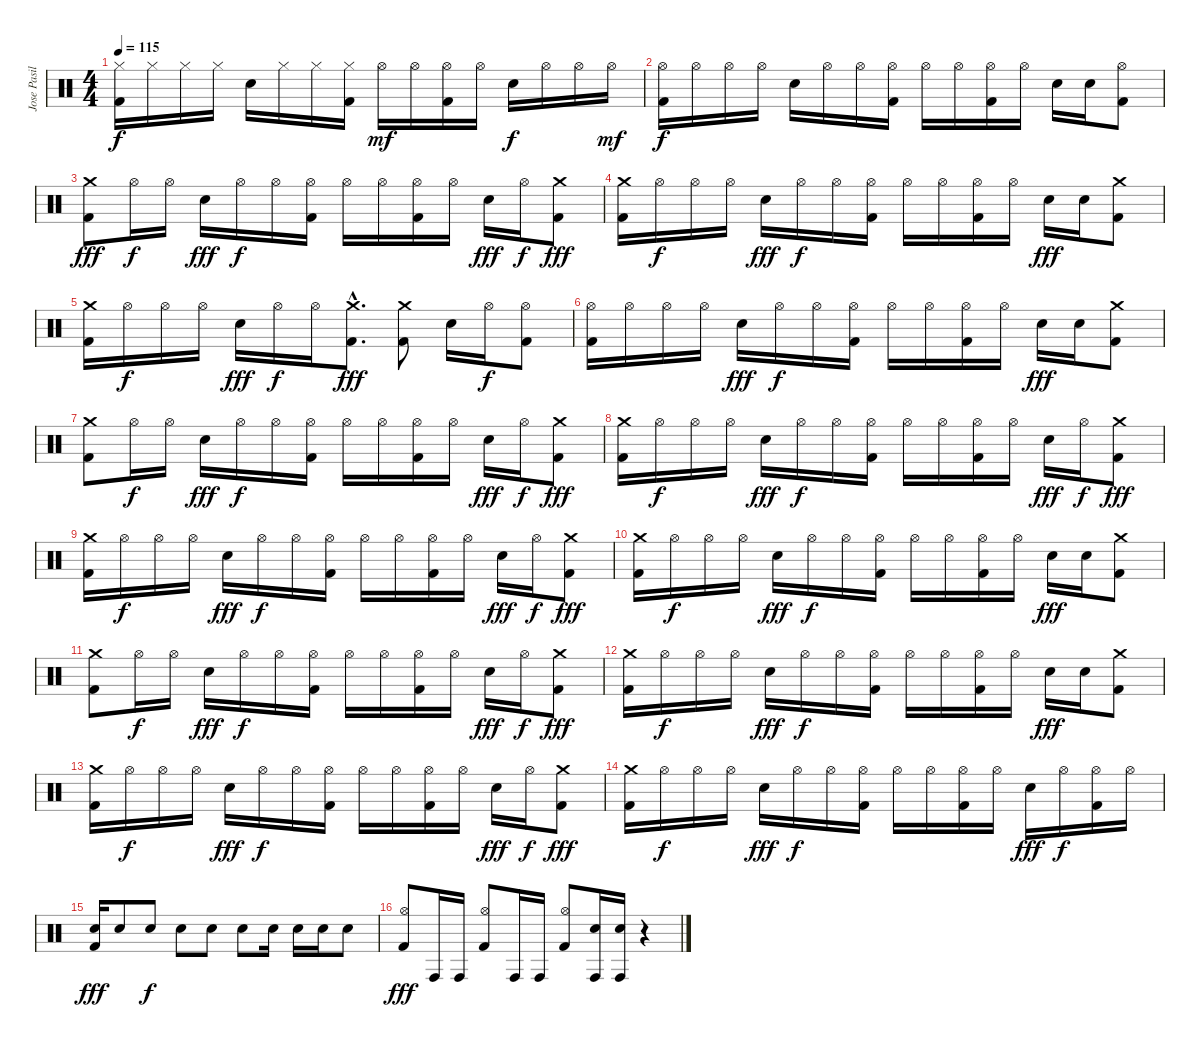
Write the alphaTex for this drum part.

\track ("Jose Pasillas - Drums" "Jose Pasil") {instrument percussion}
\staff {score}
\articulation defaults
\ts (4 4)
\tempo 115
\clef neutral
\ks c
("Hi-Hat (closed)" "Kick (hit) 2").16{dy f} "Hi-Hat (closed)".16 "Hi-Hat (closed)".16 "Hi-Hat (closed)".16 "Electric Snare (hit)".16 "Hi-Hat (closed)".16 "Hi-Hat (closed)".16 ("Hi-Hat (closed)" "Kick (hit) 2").16 "Hi-Hat (open)".16{dy mf} "Hi-Hat (open)".16 ("Hi-Hat (open)" "Kick (hit) 2").16 "Hi-Hat (open)".16 "Electric Snare (hit)".16{dy f} "Hi-Hat (open)".16 "Hi-Hat (open)".16 "Hi-Hat (open)".16{dy mf} |
("Hi-Hat (open)" "Kick (hit) 2").16{dy f} "Hi-Hat (open)".16 "Hi-Hat (open)".16 "Hi-Hat (open)".16 "Electric Snare (hit)".16 "Hi-Hat (open)".16 "Hi-Hat (open)".16 ("Hi-Hat (open)" "Kick (hit) 2").16 "Hi-Hat (open)".16 "Hi-Hat (open)".16 ("Hi-Hat (open)" "Kick (hit) 2").16 "Hi-Hat (open)".16 "Electric Snare (hit)".16 "Electric Snare (hit)".16 ("Hi-Hat (open)" "Kick (hit) 2").8 |
("Crash medium (hit)" "Kick (hit) 2").8{dy fff} "Hi-Hat (open)".16{dy f} "Hi-Hat (open)".16 "Electric Snare (hit)".16{dy fff} "Hi-Hat (open)".16{dy f} "Hi-Hat (open)".16 ("Hi-Hat (open)" "Kick (hit) 2").16 "Hi-Hat (open)".16 "Hi-Hat (open)".16 ("Hi-Hat (open)" "Kick (hit) 2").16 "Hi-Hat (open)".16 "Electric Snare (hit)".16{dy fff} "Hi-Hat (open)".16{dy f} ("Crash medium (hit)" "Kick (hit) 2").8{dy fff} |
("Crash medium (hit)" "Kick (hit) 2").16 "Hi-Hat (open)".16{dy f} "Hi-Hat (open)".16 "Hi-Hat (open)".16 "Electric Snare (hit)".16{dy fff} "Hi-Hat (open)".16{dy f} "Hi-Hat (open)".16 ("Hi-Hat (open)" "Kick (hit) 2").16 "Hi-Hat (open)".16 "Hi-Hat (open)".16 ("Hi-Hat (open)" "Kick (hit) 2").16 "Hi-Hat (open)".16 "Electric Snare (hit)".16{dy fff} "Electric Snare (hit)".16 ("Crash medium (hit)" "Kick (hit) 2").8 |
("Crash medium (hit)" "Kick (hit) 2").16 "Hi-Hat (open)".16{dy f} "Hi-Hat (open)".16 "Hi-Hat (open)".16 "Electric Snare (hit)".16{dy fff} "Hi-Hat (open)".16{dy f} "Hi-Hat (open)".16 ("Crash medium (hit)"{hac} "Kick (hit) 2"{hac}).8{d dy fff} ("Crash medium (hit)" "Kick (hit) 2").8 "Electric Snare (hit)".16 "Hi-Hat (open)".16{dy f} ("Hi-Hat (open)" "Kick (hit) 2").8 |
("Hi-Hat (open)" "Kick (hit) 2").16 "Hi-Hat (open)".16 "Hi-Hat (open)".16 "Hi-Hat (open)".16 "Electric Snare (hit)".16{dy fff} "Hi-Hat (open)".16{dy f} "Hi-Hat (open)".16 ("Hi-Hat (open)" "Kick (hit) 2").16 "Hi-Hat (open)".16 "Hi-Hat (open)".16 ("Hi-Hat (open)" "Kick (hit) 2").16 "Hi-Hat (open)".16 "Electric Snare (hit)".16{dy fff} "Electric Snare (hit)".16 ("Crash medium (hit)" "Kick (hit) 2").8 |
("Crash medium (hit)" "Kick (hit) 2").8 "Hi-Hat (open)".16{dy f} "Hi-Hat (open)".16 "Electric Snare (hit)".16{dy fff} "Hi-Hat (open)".16{dy f} "Hi-Hat (open)".16 ("Hi-Hat (open)" "Kick (hit) 2").16 "Hi-Hat (open)".16 "Hi-Hat (open)".16 ("Hi-Hat (open)" "Kick (hit) 2").16 "Hi-Hat (open)".16 "Electric Snare (hit)".16{dy fff} "Hi-Hat (open)".16{dy f} ("Crash medium (hit)" "Kick (hit) 2").8{dy fff} |
("Crash medium (hit)" "Kick (hit) 2").16 "Hi-Hat (open)".16{dy f} "Hi-Hat (open)".16 "Hi-Hat (open)".16 "Electric Snare (hit)".16{dy fff} "Hi-Hat (open)".16{dy f} "Hi-Hat (open)".16 ("Hi-Hat (open)" "Kick (hit) 2").16 "Hi-Hat (open)".16 "Hi-Hat (open)".16 ("Hi-Hat (open)" "Kick (hit) 2").16 "Hi-Hat (open)".16 "Electric Snare (hit)".16{dy fff} "Hi-Hat (open)".16{dy f} ("Crash medium (hit)" "Kick (hit) 2").8{dy fff} |
("Crash medium (hit)" "Kick (hit) 2").16 "Hi-Hat (open)".16{dy f} "Hi-Hat (open)".16 "Hi-Hat (open)".16 "Electric Snare (hit)".16{dy fff} "Hi-Hat (open)".16{dy f} "Hi-Hat (open)".16 ("Hi-Hat (open)" "Kick (hit) 2").16 "Hi-Hat (open)".16 "Hi-Hat (open)".16 ("Hi-Hat (open)" "Kick (hit) 2").16 "Hi-Hat (open)".16 "Electric Snare (hit)".16{dy fff} "Hi-Hat (open)".16{dy f} ("Crash medium (hit)" "Kick (hit) 2").8{dy fff} |
("Crash medium (hit)" "Kick (hit) 2").16 "Hi-Hat (open)".16{dy f} "Hi-Hat (open)".16 "Hi-Hat (open)".16 "Electric Snare (hit)".16{dy fff} "Hi-Hat (open)".16{dy f} "Hi-Hat (open)".16 ("Hi-Hat (open)" "Kick (hit) 2").16 "Hi-Hat (open)".16 "Hi-Hat (open)".16 ("Hi-Hat (open)" "Kick (hit) 2").16 "Hi-Hat (open)".16 "Electric Snare (hit)".16{dy fff} "Electric Snare (hit)".16 ("Crash medium (hit)" "Kick (hit) 2").8 |
("Crash medium (hit)" "Kick (hit) 2").8 "Hi-Hat (open)".16{dy f} "Hi-Hat (open)".16 "Electric Snare (hit)".16{dy fff} "Hi-Hat (open)".16{dy f} "Hi-Hat (open)".16 ("Hi-Hat (open)" "Kick (hit) 2").16 "Hi-Hat (open)".16 "Hi-Hat (open)".16 ("Hi-Hat (open)" "Kick (hit) 2").16 "Hi-Hat (open)".16 "Electric Snare (hit)".16{dy fff} "Hi-Hat (open)".16{dy f} ("Crash medium (hit)" "Kick (hit) 2").8{dy fff} |
("Crash medium (hit)" "Kick (hit) 2").16 "Hi-Hat (open)".16{dy f} "Hi-Hat (open)".16 "Hi-Hat (open)".16 "Electric Snare (hit)".16{dy fff} "Hi-Hat (open)".16{dy f} "Hi-Hat (open)".16 ("Hi-Hat (open)" "Kick (hit) 2").16 "Hi-Hat (open)".16 "Hi-Hat (open)".16 ("Hi-Hat (open)" "Kick (hit) 2").16 "Hi-Hat (open)".16 "Electric Snare (hit)".16{dy fff} "Electric Snare (hit)".16 ("Crash medium (hit)" "Kick (hit) 2").8 |
("Crash medium (hit)" "Kick (hit) 2").16 "Hi-Hat (open)".16{dy f} "Hi-Hat (open)".16 "Hi-Hat (open)".16 "Electric Snare (hit)".16{dy fff} "Hi-Hat (open)".16{dy f} "Hi-Hat (open)".16 ("Hi-Hat (open)" "Kick (hit) 2").16 "Hi-Hat (open)".16 "Hi-Hat (open)".16 ("Hi-Hat (open)" "Kick (hit) 2").16 "Hi-Hat (open)".16 "Electric Snare (hit)".16{dy fff} "Hi-Hat (open)".16{dy f} ("Crash medium (hit)" "Kick (hit) 2").8{dy fff} |
("Crash medium (hit)" "Kick (hit) 2").16 "Hi-Hat (open)".16{dy f} "Hi-Hat (open)".16 "Hi-Hat (open)".16 "Electric Snare (hit)".16{dy fff} "Hi-Hat (open)".16{dy f} "Hi-Hat (open)".16 ("Hi-Hat (open)" "Kick (hit) 2").16 "Hi-Hat (open)".16 "Hi-Hat (open)".16 ("Hi-Hat (open)" "Kick (hit) 2").16 "Hi-Hat (open)".16 "Electric Snare (hit)".16{dy fff} "Hi-Hat (open)".16{dy f} ("Hi-Hat (open)" "Kick (hit) 2").16 "Hi-Hat (open)".16 |
("Electric Snare (hit)" "Kick (hit) 2").16{dy fff} "Electric Snare (hit)".8 "Electric Snare (hit)".8{dy f} "Electric Snare (hit)".8 "Electric Snare (hit)".8 "Electric Snare (hit)".8 "Electric Snare (hit)".16 "Electric Snare (hit)".16 "Electric Snare (hit)".16 "Electric Snare (hit)".8 |
("Hi-Hat (open)" "Kick (hit) 2").8{dy fff} "Conga high (hit)".16 "Conga high (hit)".16 ("Hi-Hat (open)" "Kick (hit) 2").8 "Conga high (hit)".16 "Conga high (hit)".16 ("Hi-Hat (open)" "Kick (hit) 2").8 ("Electric Snare (hit)" "Conga high (hit)").16 ("Electric Snare (hit)" "Conga high (hit)").16 r.4
